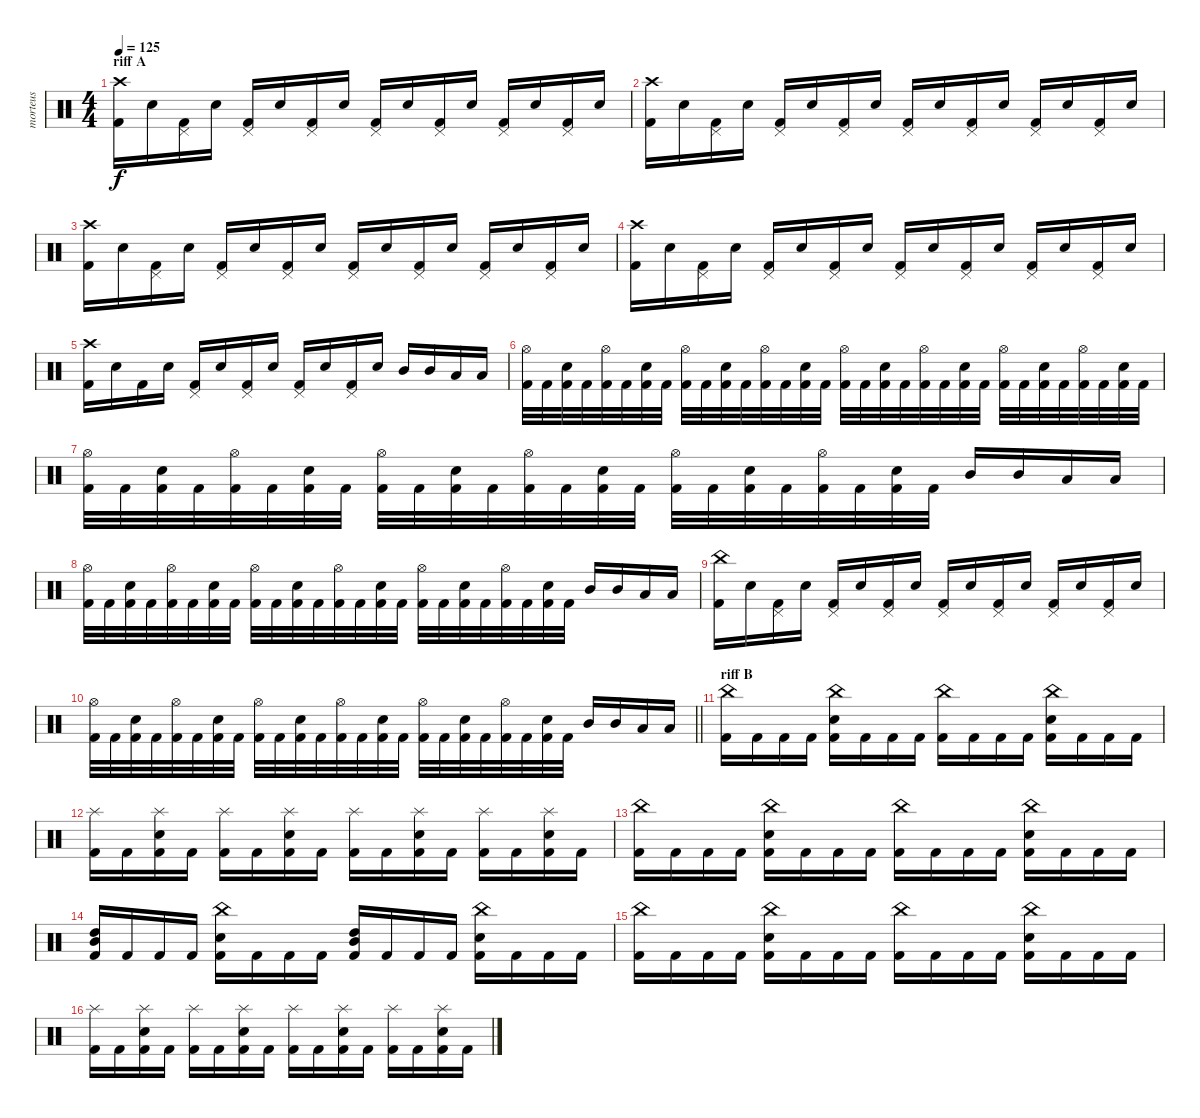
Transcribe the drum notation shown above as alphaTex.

\track ("morteus" "morteus") {instrument percussion}
\staff {score}
\articulation defaults
\ts (4 4)
\section ("" "riff A")
\tempo 125
\clef neutral
\ks c
("Kick (hit) 2" "Crash high (hit)").16{dy f} "Electric Snare (hit)".16 ("Kick (hit) 2" "Pedal Hi-Hat (hit)").16 "Electric Snare (hit)".16 ("Kick (hit) 2" "Pedal Hi-Hat (hit)").16 "Electric Snare (hit)".16 ("Kick (hit) 2" "Pedal Hi-Hat (hit)").16 "Electric Snare (hit)".16 ("Kick (hit) 2" "Pedal Hi-Hat (hit)").16 "Electric Snare (hit)".16 ("Kick (hit) 2" "Pedal Hi-Hat (hit)").16 "Electric Snare (hit)".16 ("Kick (hit) 2" "Pedal Hi-Hat (hit)").16 "Electric Snare (hit)".16 ("Kick (hit) 2" "Pedal Hi-Hat (hit)").16 "Electric Snare (hit)".16 |
("Kick (hit) 2" "Crash high (hit)").16 "Electric Snare (hit)".16 ("Kick (hit) 2" "Pedal Hi-Hat (hit)").16 "Electric Snare (hit)".16 ("Kick (hit) 2" "Pedal Hi-Hat (hit)").16 "Electric Snare (hit)".16 ("Kick (hit) 2" "Pedal Hi-Hat (hit)").16 "Electric Snare (hit)".16 ("Kick (hit) 2" "Pedal Hi-Hat (hit)").16 "Electric Snare (hit)".16 ("Kick (hit) 2" "Pedal Hi-Hat (hit)").16 "Electric Snare (hit)".16 ("Kick (hit) 2" "Pedal Hi-Hat (hit)").16 "Electric Snare (hit)".16 ("Kick (hit) 2" "Pedal Hi-Hat (hit)").16 "Electric Snare (hit)".16 |
("Kick (hit) 2" "Crash high (hit)").16 "Electric Snare (hit)".16 ("Kick (hit) 2" "Pedal Hi-Hat (hit)").16 "Electric Snare (hit)".16 ("Kick (hit) 2" "Pedal Hi-Hat (hit)").16 "Electric Snare (hit)".16 ("Kick (hit) 2" "Pedal Hi-Hat (hit)").16 "Electric Snare (hit)".16 ("Kick (hit) 2" "Pedal Hi-Hat (hit)").16 "Electric Snare (hit)".16 ("Kick (hit) 2" "Pedal Hi-Hat (hit)").16 "Electric Snare (hit)".16 ("Kick (hit) 2" "Pedal Hi-Hat (hit)").16 "Electric Snare (hit)".16 ("Kick (hit) 2" "Pedal Hi-Hat (hit)").16 "Electric Snare (hit)".16 |
("Kick (hit) 2" "Crash high (hit)").16 "Electric Snare (hit)".16 ("Kick (hit) 2" "Pedal Hi-Hat (hit)").16 "Electric Snare (hit)".16 ("Kick (hit) 2" "Pedal Hi-Hat (hit)").16 "Electric Snare (hit)".16 ("Kick (hit) 2" "Pedal Hi-Hat (hit)").16 "Electric Snare (hit)".16 ("Kick (hit) 2" "Pedal Hi-Hat (hit)").16 "Electric Snare (hit)".16 ("Kick (hit) 2" "Pedal Hi-Hat (hit)").16 "Electric Snare (hit)".16 ("Kick (hit) 2" "Pedal Hi-Hat (hit)").16 "Electric Snare (hit)".16 ("Kick (hit) 2" "Pedal Hi-Hat (hit)").16 "Electric Snare (hit)".16 |
("Kick (hit) 2" "Crash high (hit)").16 "Electric Snare (hit)".16 "Kick (hit) 2".16 "Electric Snare (hit)".16 ("Kick (hit) 2" "Pedal Hi-Hat (hit)").16 "Electric Snare (hit)".16 ("Kick (hit) 2" "Pedal Hi-Hat (hit)").16 "Electric Snare (hit)".16 ("Kick (hit) 2" "Pedal Hi-Hat (hit)").16 "Electric Snare (hit)".16 ("Kick (hit) 2" "Pedal Hi-Hat (hit)").16 "Electric Snare (hit)".16 "Mid Tom (hit)".16 "Mid Tom (hit)".16 "Low Tom (hit)".16 "Low Tom (hit)".16 |
("Kick (hit) 2" "Hi-Hat (open)").32 "Kick (hit) 2".32 ("Kick (hit) 2" "Electric Snare (hit)").32 "Kick (hit) 2".32 ("Kick (hit) 2" "Hi-Hat (open)").32 "Kick (hit) 2".32 ("Kick (hit) 2" "Electric Snare (hit)").32 "Kick (hit) 2".32 ("Kick (hit) 2" "Hi-Hat (open)").32 "Kick (hit) 2".32 ("Kick (hit) 2" "Electric Snare (hit)").32 "Kick (hit) 2".32 ("Kick (hit) 2" "Hi-Hat (open)").32 "Kick (hit) 2".32 ("Kick (hit) 2" "Electric Snare (hit)").32 "Kick (hit) 2".32 ("Kick (hit) 2" "Hi-Hat (open)").32 "Kick (hit) 2".32 ("Kick (hit) 2" "Electric Snare (hit)").32 "Kick (hit) 2".32 ("Kick (hit) 2" "Hi-Hat (open)").32 "Kick (hit) 2".32 ("Kick (hit) 2" "Electric Snare (hit)").32 "Kick (hit) 2".32 ("Kick (hit) 2" "Hi-Hat (open)").32 "Kick (hit) 2".32 ("Kick (hit) 2" "Electric Snare (hit)").32 "Kick (hit) 2".32 ("Kick (hit) 2" "Hi-Hat (open)").32 "Kick (hit) 2".32 ("Kick (hit) 2" "Electric Snare (hit)").32 "Kick (hit) 2".32 |
("Kick (hit) 2" "Hi-Hat (open)").32 "Kick (hit) 2".32 ("Kick (hit) 2" "Electric Snare (hit)").32 "Kick (hit) 2".32 ("Kick (hit) 2" "Hi-Hat (open)").32 "Kick (hit) 2".32 ("Kick (hit) 2" "Electric Snare (hit)").32 "Kick (hit) 2".32 ("Kick (hit) 2" "Hi-Hat (open)").32 "Kick (hit) 2".32 ("Kick (hit) 2" "Electric Snare (hit)").32 "Kick (hit) 2".32 ("Kick (hit) 2" "Hi-Hat (open)").32 "Kick (hit) 2".32 ("Kick (hit) 2" "Electric Snare (hit)").32 "Kick (hit) 2".32 ("Kick (hit) 2" "Hi-Hat (open)").32 "Kick (hit) 2".32 ("Kick (hit) 2" "Electric Snare (hit)").32 "Kick (hit) 2".32 ("Kick (hit) 2" "Hi-Hat (open)").32 "Kick (hit) 2".32 ("Kick (hit) 2" "Electric Snare (hit)").32 "Kick (hit) 2".32 "Mid Tom (hit)".16 "Mid Tom (hit)".16 "Low Tom (hit)".16 "Low Tom (hit)".16 |
("Kick (hit) 2" "Hi-Hat (open)").32 "Kick (hit) 2".32 ("Kick (hit) 2" "Electric Snare (hit)").32 "Kick (hit) 2".32 ("Kick (hit) 2" "Hi-Hat (open)").32 "Kick (hit) 2".32 ("Kick (hit) 2" "Electric Snare (hit)").32 "Kick (hit) 2".32 ("Kick (hit) 2" "Hi-Hat (open)").32 "Kick (hit) 2".32 ("Kick (hit) 2" "Electric Snare (hit)").32 "Kick (hit) 2".32 ("Kick (hit) 2" "Hi-Hat (open)").32 "Kick (hit) 2".32 ("Kick (hit) 2" "Electric Snare (hit)").32 "Kick (hit) 2".32 ("Kick (hit) 2" "Hi-Hat (open)").32 "Kick (hit) 2".32 ("Kick (hit) 2" "Electric Snare (hit)").32 "Kick (hit) 2".32 ("Kick (hit) 2" "Hi-Hat (open)").32 "Kick (hit) 2".32 ("Kick (hit) 2" "Electric Snare (hit)").32 "Kick (hit) 2".32 "Mid Tom (hit)".16 "Mid Tom (hit)".16 "Low Tom (hit)".16 "Low Tom (hit)".16 |
("Kick (hit) 2" "China (hit)").16 "Electric Snare (hit)".16 ("Kick (hit) 2" "Pedal Hi-Hat (hit)").16 "Electric Snare (hit)".16 ("Kick (hit) 2" "Pedal Hi-Hat (hit)").16 "Electric Snare (hit)".16 ("Kick (hit) 2" "Pedal Hi-Hat (hit)").16 "Electric Snare (hit)".16 ("Kick (hit) 2" "Pedal Hi-Hat (hit)").16 "Electric Snare (hit)".16 ("Kick (hit) 2" "Pedal Hi-Hat (hit)").16 "Electric Snare (hit)".16 ("Kick (hit) 2" "Pedal Hi-Hat (hit)").16 "Electric Snare (hit)".16 ("Kick (hit) 2" "Pedal Hi-Hat (hit)").16 "Electric Snare (hit)".16 |
\barLineRight lightlight
("Kick (hit) 2" "Hi-Hat (open)").32 "Kick (hit) 2".32 ("Kick (hit) 2" "Electric Snare (hit)").32 "Kick (hit) 2".32 ("Kick (hit) 2" "Hi-Hat (open)").32 "Kick (hit) 2".32 ("Kick (hit) 2" "Electric Snare (hit)").32 "Kick (hit) 2".32 ("Kick (hit) 2" "Hi-Hat (open)").32 "Kick (hit) 2".32 ("Kick (hit) 2" "Electric Snare (hit)").32 "Kick (hit) 2".32 ("Kick (hit) 2" "Hi-Hat (open)").32 "Kick (hit) 2".32 ("Kick (hit) 2" "Electric Snare (hit)").32 "Kick (hit) 2".32 ("Kick (hit) 2" "Hi-Hat (open)").32 "Kick (hit) 2".32 ("Kick (hit) 2" "Electric Snare (hit)").32 "Kick (hit) 2".32 ("Kick (hit) 2" "Hi-Hat (open)").32 "Kick (hit) 2".32 ("Kick (hit) 2" "Electric Snare (hit)").32 "Kick (hit) 2".32 "Mid Tom (hit)".16 "Mid Tom (hit)".16 "Low Tom (hit)".16 "Low Tom (hit)".16 |
\section ("" "riff B")
("China (hit)" "Kick (hit) 2").16 "Kick (hit) 2".16 "Kick (hit) 2".16 "Kick (hit) 2".16 ("China (hit)" "Electric Snare (hit)" "Kick (hit) 2").16 "Kick (hit) 2".16 "Kick (hit) 2".16 "Kick (hit) 2".16 ("China (hit)" "Kick (hit) 2").16 "Kick (hit) 2".16 "Kick (hit) 2".16 "Kick (hit) 2".16 ("China (hit)" "Electric Snare (hit)" "Kick (hit) 2").16 "Kick (hit) 2".16 "Kick (hit) 2".16 "Kick (hit) 2".16 |
("Splash (hit)" "Kick (hit) 2").16 "Kick (hit) 2".16 ("Splash (hit)" "Electric Snare (hit)" "Kick (hit) 2").16 "Kick (hit) 2".16 ("Splash (hit)" "Kick (hit) 2").16 "Kick (hit) 2".16 ("Splash (hit)" "Electric Snare (hit)" "Kick (hit) 2").16 "Kick (hit) 2".16 ("Splash (hit)" "Kick (hit) 2").16 "Kick (hit) 2".16 ("Splash (hit)" "Electric Snare (hit)" "Kick (hit) 2").16 "Kick (hit) 2".16 ("Splash (hit)" "Kick (hit) 2").16 "Kick (hit) 2".16 ("Splash (hit)" "Electric Snare (hit)" "Kick (hit) 2").16 "Kick (hit) 2".16 |
("China (hit)" "Kick (hit) 2").16 "Kick (hit) 2".16 "Kick (hit) 2".16 "Kick (hit) 2".16 ("China (hit)" "Electric Snare (hit)" "Kick (hit) 2").16 "Kick (hit) 2".16 "Kick (hit) 2".16 "Kick (hit) 2".16 ("China (hit)" "Kick (hit) 2").16 "Kick (hit) 2".16 "Kick (hit) 2".16 "Kick (hit) 2".16 ("China (hit)" "Electric Snare (hit)" "Kick (hit) 2").16 "Kick (hit) 2".16 "Kick (hit) 2".16 "Kick (hit) 2".16 |
("High Tom (hit)" "Mid Tom (hit)" "Kick (hit) 2").16 "Kick (hit) 2".16 "Kick (hit) 2".16 "Kick (hit) 2".16 ("China (hit)" "Electric Snare (hit)" "Kick (hit) 2").16 "Kick (hit) 2".16 "Kick (hit) 2".16 "Kick (hit) 2".16 ("High Tom (hit)" "Mid Tom (hit)" "Kick (hit) 2").16 "Kick (hit) 2".16 "Kick (hit) 2".16 "Kick (hit) 2".16 ("China (hit)" "Electric Snare (hit)" "Kick (hit) 2").16 "Kick (hit) 2".16 "Kick (hit) 2".16 "Kick (hit) 2".16 |
("China (hit)" "Kick (hit) 2").16 "Kick (hit) 2".16 "Kick (hit) 2".16 "Kick (hit) 2".16 ("China (hit)" "Electric Snare (hit)" "Kick (hit) 2").16 "Kick (hit) 2".16 "Kick (hit) 2".16 "Kick (hit) 2".16 ("China (hit)" "Kick (hit) 2").16 "Kick (hit) 2".16 "Kick (hit) 2".16 "Kick (hit) 2".16 ("China (hit)" "Electric Snare (hit)" "Kick (hit) 2").16 "Kick (hit) 2".16 "Kick (hit) 2".16 "Kick (hit) 2".16 |
("Splash (hit)" "Kick (hit) 2").16 "Kick (hit) 2".16 ("Splash (hit)" "Electric Snare (hit)" "Kick (hit) 2").16 "Kick (hit) 2".16 ("Splash (hit)" "Kick (hit) 2").16 "Kick (hit) 2".16 ("Splash (hit)" "Electric Snare (hit)" "Kick (hit) 2").16 "Kick (hit) 2".16 ("Splash (hit)" "Kick (hit) 2").16 "Kick (hit) 2".16 ("Splash (hit)" "Electric Snare (hit)" "Kick (hit) 2").16 "Kick (hit) 2".16 ("Splash (hit)" "Kick (hit) 2").16 "Kick (hit) 2".16 ("Splash (hit)" "Electric Snare (hit)" "Kick (hit) 2").16 "Kick (hit) 2".16
